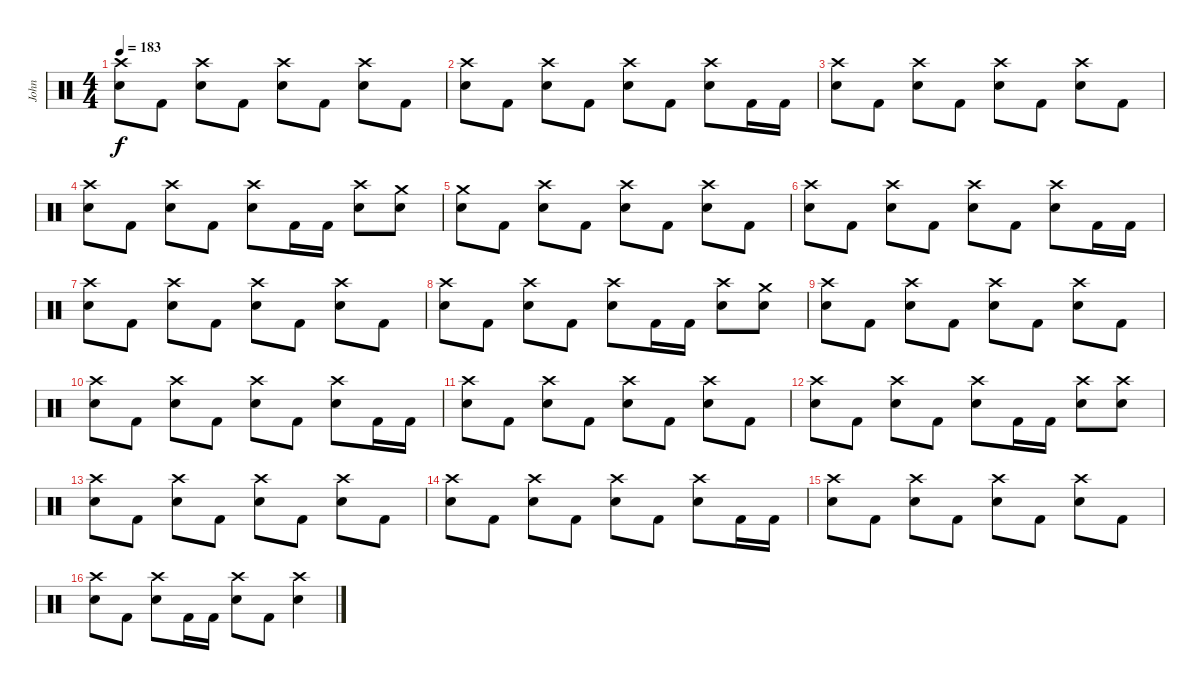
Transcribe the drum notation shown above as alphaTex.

\track ("John " "John ") {instrument percussion}
\staff {score}
\articulation defaults
\ts (4 4)
\tempo 183
\clef neutral
\ks c
("Crash high (hit)" "Snare (hit) 2").8{dy f} "Kick (hit) 2".8 ("Crash high (hit)" "Snare (hit) 2").8 "Kick (hit) 2".8 ("Crash high (hit)" "Snare (hit) 2").8 "Kick (hit) 2".8 ("Crash high (hit)" "Snare (hit) 2").8 "Kick (hit) 2".8 |
("Crash high (hit)" "Snare (hit) 2").8 "Kick (hit) 2".8 ("Crash high (hit)" "Snare (hit) 2").8 "Kick (hit) 2".8 ("Crash high (hit)" "Snare (hit) 2").8 "Kick (hit) 2".8 ("Crash high (hit)" "Snare (hit) 2").8 "Kick (hit) 2".16 "Kick (hit) 2".16 |
("Crash high (hit)" "Snare (hit) 2").8 "Kick (hit) 2".8 ("Crash high (hit)" "Snare (hit) 2").8 "Kick (hit) 2".8 ("Crash high (hit)" "Snare (hit) 2").8 "Kick (hit) 2".8 ("Crash high (hit)" "Snare (hit) 2").8 "Kick (hit) 2".8 |
("Crash high (hit)" "Snare (hit) 2").8 "Kick (hit) 2".8 ("Crash high (hit)" "Snare (hit) 2").8 "Kick (hit) 2".8 ("Crash high (hit)" "Snare (hit) 2").8 "Kick (hit) 2".16 "Kick (hit) 2".16 ("Crash high (hit)" "Snare (hit) 2").8 ("Crash medium (hit)" "Snare (hit) 2").8 |
("Crash medium (hit)" "Snare (hit) 2").8 "Kick (hit) 2".8 ("Crash high (hit)" "Snare (hit) 2").8 "Kick (hit) 2".8 ("Crash high (hit)" "Snare (hit) 2").8 "Kick (hit) 2".8 ("Crash high (hit)" "Snare (hit) 2").8 "Kick (hit) 2".8 |
("Crash high (hit)" "Snare (hit) 2").8 "Kick (hit) 2".8 ("Crash high (hit)" "Snare (hit) 2").8 "Kick (hit) 2".8 ("Crash high (hit)" "Snare (hit) 2").8 "Kick (hit) 2".8 ("Crash high (hit)" "Snare (hit) 2").8 "Kick (hit) 2".16 "Kick (hit) 2".16 |
("Crash high (hit)" "Snare (hit) 2").8 "Kick (hit) 2".8 ("Crash high (hit)" "Snare (hit) 2").8 "Kick (hit) 2".8 ("Crash high (hit)" "Snare (hit) 2").8 "Kick (hit) 2".8 ("Crash high (hit)" "Snare (hit) 2").8 "Kick (hit) 2".8 |
("Crash high (hit)" "Snare (hit) 2").8 "Kick (hit) 2".8 ("Crash high (hit)" "Snare (hit) 2").8 "Kick (hit) 2".8 ("Crash high (hit)" "Snare (hit) 2").8 "Kick (hit) 2".16 "Kick (hit) 2".16 ("Crash high (hit)" "Snare (hit) 2").8 ("Crash medium (hit)" "Snare (hit) 2").8 |
("Crash high (hit)" "Snare (hit) 2").8 "Kick (hit) 2".8 ("Crash high (hit)" "Snare (hit) 2").8 "Kick (hit) 2".8 ("Crash high (hit)" "Snare (hit) 2").8 "Kick (hit) 2".8 ("Crash high (hit)" "Snare (hit) 2").8 "Kick (hit) 2".8 |
("Crash high (hit)" "Snare (hit) 2").8 "Kick (hit) 2".8 ("Crash high (hit)" "Snare (hit) 2").8 "Kick (hit) 2".8 ("Crash high (hit)" "Snare (hit) 2").8 "Kick (hit) 2".8 ("Crash high (hit)" "Snare (hit) 2").8 "Kick (hit) 2".16 "Kick (hit) 2".16 |
("Crash high (hit)" "Snare (hit) 2").8 "Kick (hit) 2".8 ("Crash high (hit)" "Snare (hit) 2").8 "Kick (hit) 2".8 ("Crash high (hit)" "Snare (hit) 2").8 "Kick (hit) 2".8 ("Crash high (hit)" "Snare (hit) 2").8 "Kick (hit) 2".8 |
("Crash high (hit)" "Snare (hit) 2").8 "Kick (hit) 2".8 ("Crash high (hit)" "Snare (hit) 2").8 "Kick (hit) 2".8 ("Crash high (hit)" "Snare (hit) 2").8 "Kick (hit) 2".16 "Kick (hit) 2".16 ("Crash high (hit)" "Snare (hit) 2").8 ("Crash high (hit)" "Snare (hit) 2").8 |
("Crash high (hit)" "Snare (hit) 2").8 "Kick (hit) 2".8 ("Crash high (hit)" "Snare (hit) 2").8 "Kick (hit) 2".8 ("Crash high (hit)" "Snare (hit) 2").8 "Kick (hit) 2".8 ("Crash high (hit)" "Snare (hit) 2").8 "Kick (hit) 2".8 |
("Crash high (hit)" "Snare (hit) 2").8 "Kick (hit) 2".8 ("Crash high (hit)" "Snare (hit) 2").8 "Kick (hit) 2".8 ("Crash high (hit)" "Snare (hit) 2").8 "Kick (hit) 2".8 ("Crash high (hit)" "Snare (hit) 2").8 "Kick (hit) 2".16 "Kick (hit) 2".16 |
("Crash high (hit)" "Snare (hit) 2").8 "Kick (hit) 2".8 ("Crash high (hit)" "Snare (hit) 2").8 "Kick (hit) 2".8 ("Crash high (hit)" "Snare (hit) 2").8 "Kick (hit) 2".8 ("Crash high (hit)" "Snare (hit) 2").8 "Kick (hit) 2".8 |
("Crash high (hit)" "Snare (hit) 2").8 "Kick (hit) 2".8 ("Crash high (hit)" "Snare (hit) 2").8 "Kick (hit) 2".16 "Kick (hit) 2".16 ("Crash high (hit)" "Snare (hit) 2").8 "Kick (hit) 2".8 ("Crash high (hit)" "Snare (hit) 2").4
